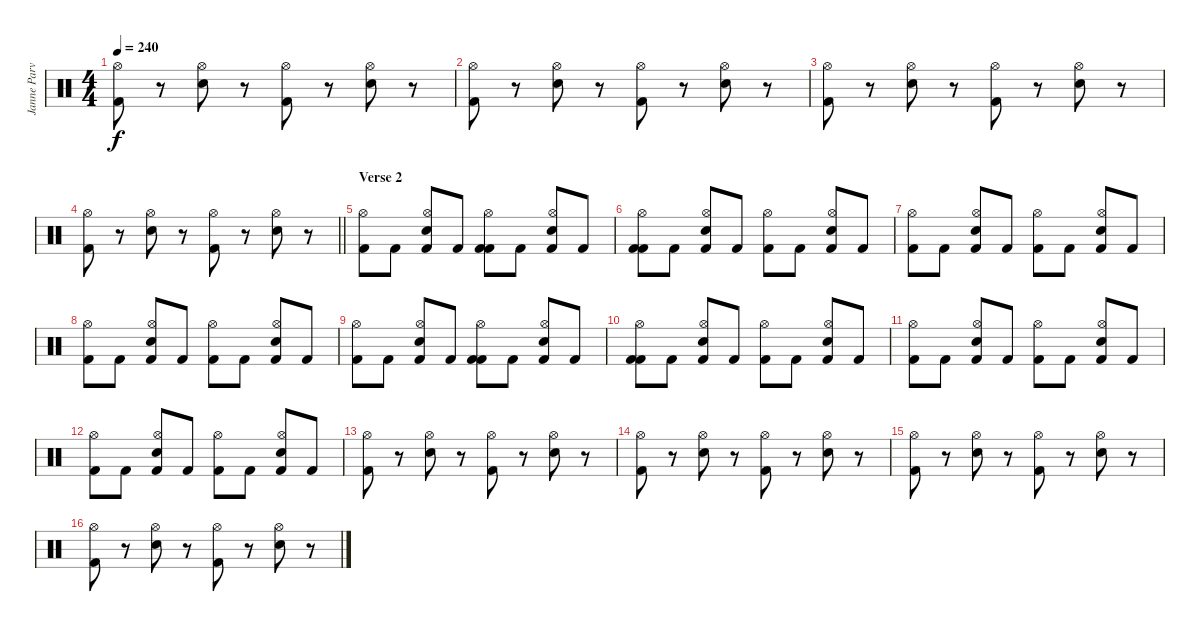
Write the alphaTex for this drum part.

\track ("Janne Parviainen" "Janne Parv") {instrument percussion}
\staff {score}
\articulation defaults
\ts (4 4)
\tempo 240
\clef neutral
\ks c
("Kick (hit) 2" "Hi-Hat (open)").8{dy f} r.8 ("Electric Snare (hit)" "Hi-Hat (open)").8 r.8 ("Kick (hit) 2" "Hi-Hat (open)").8 r.8 ("Electric Snare (hit)" "Hi-Hat (open)").8 r.8 |
("Kick (hit) 2" "Hi-Hat (open)").8 r.8 ("Electric Snare (hit)" "Hi-Hat (open)").8 r.8 ("Kick (hit) 2" "Hi-Hat (open)").8 r.8 ("Electric Snare (hit)" "Hi-Hat (open)").8 r.8 |
("Kick (hit) 2" "Hi-Hat (open)").8 r.8 ("Electric Snare (hit)" "Hi-Hat (open)").8 r.8 ("Kick (hit) 2" "Hi-Hat (open)").8 r.8 ("Electric Snare (hit)" "Hi-Hat (open)").8 r.8 |
\barLineRight lightlight
("Kick (hit) 2" "Hi-Hat (open)").8 r.8 ("Electric Snare (hit)" "Hi-Hat (open)").8 r.8 ("Kick (hit) 2" "Hi-Hat (open)").8 r.8 ("Electric Snare (hit)" "Hi-Hat (open)").8 r.8 |
\section ("" "Verse 2")
("Kick (hit) 2" "Hi-Hat (open)").8 "Kick (hit) 2".8 ("Electric Snare (hit)" "Hi-Hat (open)" "Kick (hit) 2").8 "Kick (hit) 2".8 ("Kick (hit) 2" "Hi-Hat (open)" "Kick (hit) 2").8 "Kick (hit) 2".8 ("Electric Snare (hit)" "Hi-Hat (open)" "Kick (hit) 2").8 "Kick (hit) 2".8 |
("Kick (hit) 2" "Hi-Hat (open)" "Kick (hit) 2").8 "Kick (hit) 2".8 ("Electric Snare (hit)" "Hi-Hat (open)" "Kick (hit) 2").8 "Kick (hit) 2".8 ("Kick (hit) 2" "Hi-Hat (open)").8 "Kick (hit) 2".8 ("Electric Snare (hit)" "Hi-Hat (open)" "Kick (hit) 2").8 "Kick (hit) 2".8 |
("Kick (hit) 2" "Hi-Hat (open)").8 "Kick (hit) 2".8 ("Electric Snare (hit)" "Hi-Hat (open)" "Kick (hit) 2").8 "Kick (hit) 2".8 ("Kick (hit) 2" "Hi-Hat (open)").8 "Kick (hit) 2".8 ("Electric Snare (hit)" "Hi-Hat (open)" "Kick (hit) 2").8 "Kick (hit) 2".8 |
("Kick (hit) 2" "Hi-Hat (open)").8 "Kick (hit) 2".8 ("Electric Snare (hit)" "Hi-Hat (open)" "Kick (hit) 2").8 "Kick (hit) 2".8 ("Kick (hit) 2" "Hi-Hat (open)").8 "Kick (hit) 2".8 ("Electric Snare (hit)" "Hi-Hat (open)" "Kick (hit) 2").8 "Kick (hit) 2".8 |
("Kick (hit) 2" "Hi-Hat (open)").8 "Kick (hit) 2".8 ("Electric Snare (hit)" "Hi-Hat (open)" "Kick (hit) 2").8 "Kick (hit) 2".8 ("Kick (hit) 2" "Hi-Hat (open)" "Kick (hit) 2").8 "Kick (hit) 2".8 ("Electric Snare (hit)" "Hi-Hat (open)" "Kick (hit) 2").8 "Kick (hit) 2".8 |
("Kick (hit) 2" "Hi-Hat (open)" "Kick (hit) 2").8 "Kick (hit) 2".8 ("Electric Snare (hit)" "Hi-Hat (open)" "Kick (hit) 2").8 "Kick (hit) 2".8 ("Kick (hit) 2" "Hi-Hat (open)").8 "Kick (hit) 2".8 ("Electric Snare (hit)" "Hi-Hat (open)" "Kick (hit) 2").8 "Kick (hit) 2".8 |
("Kick (hit) 2" "Hi-Hat (open)").8 "Kick (hit) 2".8 ("Electric Snare (hit)" "Hi-Hat (open)" "Kick (hit) 2").8 "Kick (hit) 2".8 ("Kick (hit) 2" "Hi-Hat (open)").8 "Kick (hit) 2".8 ("Electric Snare (hit)" "Hi-Hat (open)" "Kick (hit) 2").8 "Kick (hit) 2".8 |
("Kick (hit) 2" "Hi-Hat (open)").8 "Kick (hit) 2".8 ("Electric Snare (hit)" "Hi-Hat (open)" "Kick (hit) 2").8 "Kick (hit) 2".8 ("Kick (hit) 2" "Hi-Hat (open)").8 "Kick (hit) 2".8 ("Electric Snare (hit)" "Hi-Hat (open)" "Kick (hit) 2").8 "Kick (hit) 2".8 |
("Kick (hit) 2" "Hi-Hat (open)").8 r.8 ("Electric Snare (hit)" "Hi-Hat (open)").8 r.8 ("Kick (hit) 2" "Hi-Hat (open)").8 r.8 ("Electric Snare (hit)" "Hi-Hat (open)").8 r.8 |
("Kick (hit) 2" "Hi-Hat (open)").8 r.8 ("Electric Snare (hit)" "Hi-Hat (open)").8 r.8 ("Kick (hit) 2" "Hi-Hat (open)").8 r.8 ("Electric Snare (hit)" "Hi-Hat (open)").8 r.8 |
("Kick (hit) 2" "Hi-Hat (open)").8 r.8 ("Electric Snare (hit)" "Hi-Hat (open)").8 r.8 ("Kick (hit) 2" "Hi-Hat (open)").8 r.8 ("Electric Snare (hit)" "Hi-Hat (open)").8 r.8 |
("Kick (hit) 2" "Hi-Hat (open)").8 r.8 ("Electric Snare (hit)" "Hi-Hat (open)").8 r.8 ("Kick (hit) 2" "Hi-Hat (open)").8 r.8 ("Electric Snare (hit)" "Hi-Hat (open)").8 r.8
